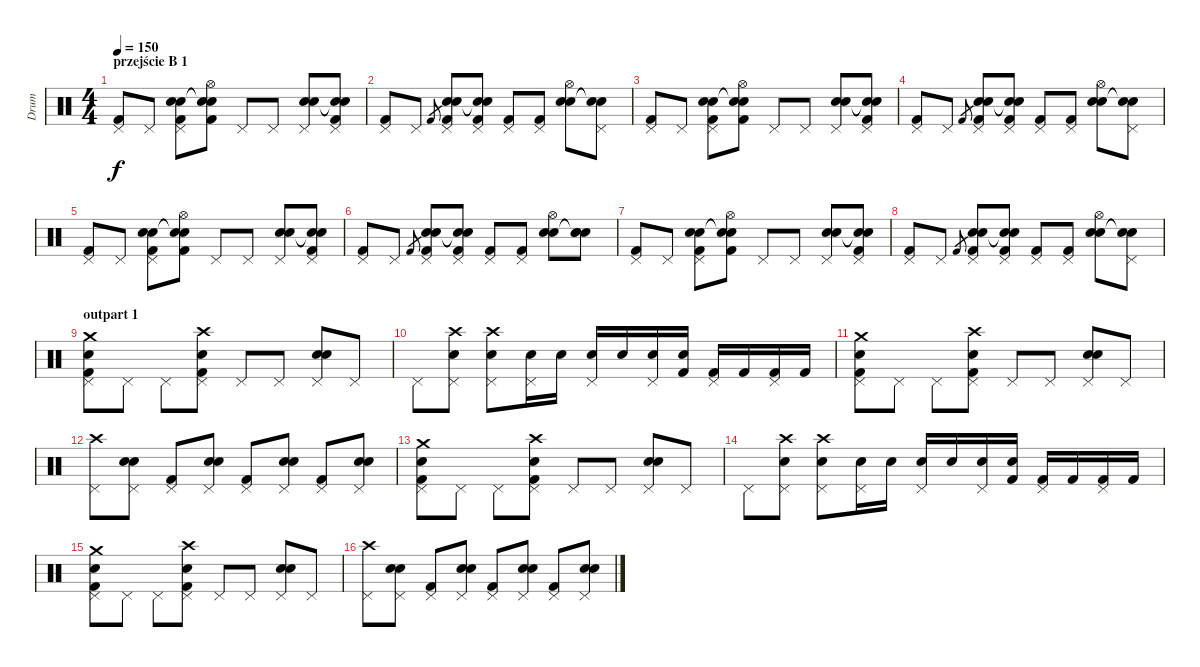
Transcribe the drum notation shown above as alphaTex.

\track ("Drum" "Drum") {instrument percussion}
\staff {score}
\articulation defaults
\ts (4 4)
\section ("" "przejście B 1")
\tempo 150
\clef neutral
\ks c
("Kick (hit) 2" "Pedal Hi-Hat (hit)").8{dy f} "Pedal Hi-Hat (hit)".8 ("Electric Snare (hit)" "Snare (hit) 2" "Kick (hit) 2" "Pedal Hi-Hat (hit)").8 ("Electric Snare (hit)"{t} "Snare (hit)"{t} "Kick (hit) 2" "Hi-Hat (open)").8 "Pedal Hi-Hat (hit)".8 "Pedal Hi-Hat (hit)".8 ("Electric Snare (hit)" "Snare (hit) 2" "Pedal Hi-Hat (hit)").8 ("Snare (hit)"{t} "Snare (hit)"{t} "Kick (hit) 2" "Pedal Hi-Hat (hit)").8 |
("Kick (hit) 2" "Pedal Hi-Hat (hit)").8 "Pedal Hi-Hat (hit)".8 "Kick (hit) 2".8{gr} ("Electric Snare (hit)" "Snare (hit) 2" "Kick (hit) 2" "Pedal Hi-Hat (hit)").8 ("Electric Snare (hit)"{t} "Snare (hit)"{t} "Kick (hit) 2" "Pedal Hi-Hat (hit)").8 ("Kick (hit) 2" "Pedal Hi-Hat (hit)").8 ("Kick (hit) 2" "Pedal Hi-Hat (hit)").8 ("Electric Snare (hit)" "Snare (hit) 2" "Hi-Hat (open)").8 ("Snare (hit)"{t} "Snare (hit)"{t} "Pedal Hi-Hat (hit)").8 |
("Kick (hit) 2" "Pedal Hi-Hat (hit)").8 "Pedal Hi-Hat (hit)".8 ("Electric Snare (hit)" "Snare (hit) 2" "Kick (hit) 2" "Pedal Hi-Hat (hit)").8 ("Electric Snare (hit)"{t} "Snare (hit)"{t} "Kick (hit) 2" "Hi-Hat (open)").8 "Pedal Hi-Hat (hit)".8 "Pedal Hi-Hat (hit)".8 ("Electric Snare (hit)" "Snare (hit) 2" "Pedal Hi-Hat (hit)").8 ("Snare (hit)"{t} "Snare (hit)"{t} "Kick (hit) 2" "Pedal Hi-Hat (hit)").8 |
("Kick (hit) 2" "Pedal Hi-Hat (hit)").8 "Pedal Hi-Hat (hit)".8 "Kick (hit) 2".8{gr} ("Electric Snare (hit)" "Snare (hit) 2" "Kick (hit) 2" "Pedal Hi-Hat (hit)").8 ("Electric Snare (hit)"{t} "Snare (hit)"{t} "Kick (hit) 2" "Pedal Hi-Hat (hit)").8 ("Kick (hit) 2" "Pedal Hi-Hat (hit)").8 ("Kick (hit) 2" "Pedal Hi-Hat (hit)").8 ("Electric Snare (hit)" "Snare (hit) 2" "Hi-Hat (open)").8 ("Snare (hit)"{t} "Snare (hit)"{t} "Pedal Hi-Hat (hit)").8 |
("Kick (hit) 2" "Pedal Hi-Hat (hit)").8 "Pedal Hi-Hat (hit)".8 ("Electric Snare (hit)" "Snare (hit) 2" "Kick (hit) 2" "Pedal Hi-Hat (hit)").8 ("Electric Snare (hit)"{t} "Snare (hit)"{t} "Kick (hit) 2" "Hi-Hat (open)").8 "Pedal Hi-Hat (hit)".8 "Pedal Hi-Hat (hit)".8 ("Electric Snare (hit)" "Snare (hit) 2" "Pedal Hi-Hat (hit)").8 ("Snare (hit)"{t} "Snare (hit)"{t} "Kick (hit) 2" "Pedal Hi-Hat (hit)").8 |
("Kick (hit) 2" "Pedal Hi-Hat (hit)").8 "Pedal Hi-Hat (hit)".8 "Kick (hit) 2".8{gr} ("Electric Snare (hit)" "Snare (hit) 2" "Kick (hit) 2" "Pedal Hi-Hat (hit)").8 ("Electric Snare (hit)"{t} "Snare (hit)"{t} "Kick (hit) 2" "Pedal Hi-Hat (hit)").8 ("Kick (hit) 2" "Pedal Hi-Hat (hit)").8 ("Kick (hit) 2" "Pedal Hi-Hat (hit)").8 ("Electric Snare (hit)" "Snare (hit) 2" "Hi-Hat (open)").8 ("Snare (hit)"{t} "Snare (hit)"{t} "Electric Snare (hit)").8 |
("Kick (hit) 2" "Pedal Hi-Hat (hit)").8 "Pedal Hi-Hat (hit)".8 ("Electric Snare (hit)" "Snare (hit) 2" "Kick (hit) 2" "Pedal Hi-Hat (hit)").8 ("Electric Snare (hit)"{t} "Snare (hit)"{t} "Kick (hit) 2" "Hi-Hat (open)").8 "Pedal Hi-Hat (hit)".8 "Pedal Hi-Hat (hit)".8 ("Electric Snare (hit)" "Snare (hit) 2" "Pedal Hi-Hat (hit)").8 ("Snare (hit)"{t} "Snare (hit)"{t} "Kick (hit) 2" "Pedal Hi-Hat (hit)").8 |
("Kick (hit) 2" "Pedal Hi-Hat (hit)").8 "Pedal Hi-Hat (hit)".8 "Kick (hit) 2".8{gr} ("Electric Snare (hit)" "Snare (hit) 2" "Kick (hit) 2" "Pedal Hi-Hat (hit)").8 ("Electric Snare (hit)"{t} "Snare (hit)"{t} "Kick (hit) 2" "Pedal Hi-Hat (hit)").8 ("Kick (hit) 2" "Pedal Hi-Hat (hit)").8 ("Kick (hit) 2" "Pedal Hi-Hat (hit)").8 ("Electric Snare (hit)" "Snare (hit) 2" "Hi-Hat (open)").8 ("Snare (hit)"{t} "Snare (hit)"{t} "Pedal Hi-Hat (hit)").8 |
\section ("" "outpart 1")
("Electric Snare (hit)" "Crash medium (hit)" "Kick (hit) 2" "Pedal Hi-Hat (hit)").8 "Pedal Hi-Hat (hit)".8 "Pedal Hi-Hat (hit)".8 ("Electric Snare (hit)" "Crash high (hit)" "Kick (hit) 2" "Pedal Hi-Hat (hit)").8 "Pedal Hi-Hat (hit)".8 "Pedal Hi-Hat (hit)".8 ("Electric Snare (hit)" "Snare (hit) 2" "Pedal Hi-Hat (hit)").8 "Pedal Hi-Hat (hit)".8 |
"Pedal Hi-Hat (hit)".8 ("Electric Snare (hit)" "Crash high (hit)" "Pedal Hi-Hat (hit)").8 ("Electric Snare (hit)" "Crash high (hit)" "Pedal Hi-Hat (hit)").8 ("Electric Snare (hit)" "Pedal Hi-Hat (hit)").16 "Snare (hit) 2".16 ("Electric Snare (hit)" "Pedal Hi-Hat (hit)").16 "Snare (hit) 2".16 ("Electric Snare (hit)" "Pedal Hi-Hat (hit)").16 ("Snare (hit) 2" "Kick (hit) 2").16 ("Kick (hit) 2" "Pedal Hi-Hat (hit)").16 "Kick (hit) 2".16 ("Kick (hit) 2" "Pedal Hi-Hat (hit)").16 "Kick (hit) 2".16 |
("Electric Snare (hit)" "Crash medium (hit)" "Kick (hit) 2" "Pedal Hi-Hat (hit)").8 "Pedal Hi-Hat (hit)".8 "Pedal Hi-Hat (hit)".8 ("Electric Snare (hit)" "Crash high (hit)" "Kick (hit) 2" "Pedal Hi-Hat (hit)").8 "Pedal Hi-Hat (hit)".8 "Pedal Hi-Hat (hit)".8 ("Electric Snare (hit)" "Snare (hit) 2" "Pedal Hi-Hat (hit)").8 "Pedal Hi-Hat (hit)".8 |
("Crash high (hit)" "Pedal Hi-Hat (hit)").8 ("Electric Snare (hit)" "Snare (hit) 2" "Pedal Hi-Hat (hit)").8 ("Kick (hit) 2" "Pedal Hi-Hat (hit)").8 ("Electric Snare (hit)" "Snare (hit) 2" "Pedal Hi-Hat (hit)").8 ("Kick (hit) 2" "Pedal Hi-Hat (hit)").8 ("Electric Snare (hit)" "Snare (hit) 2" "Pedal Hi-Hat (hit)").8 ("Kick (hit) 2" "Pedal Hi-Hat (hit)").8 ("Electric Snare (hit)" "Snare (hit) 2" "Pedal Hi-Hat (hit)").8 |
("Electric Snare (hit)" "Crash medium (hit)" "Kick (hit) 2" "Pedal Hi-Hat (hit)").8 "Pedal Hi-Hat (hit)".8 "Pedal Hi-Hat (hit)".8 ("Electric Snare (hit)" "Crash high (hit)" "Kick (hit) 2" "Pedal Hi-Hat (hit)").8 "Pedal Hi-Hat (hit)".8 "Pedal Hi-Hat (hit)".8 ("Electric Snare (hit)" "Snare (hit) 2" "Pedal Hi-Hat (hit)").8 "Pedal Hi-Hat (hit)".8 |
"Pedal Hi-Hat (hit)".8 ("Electric Snare (hit)" "Crash high (hit)" "Pedal Hi-Hat (hit)").8 ("Electric Snare (hit)" "Crash high (hit)" "Pedal Hi-Hat (hit)").8 ("Electric Snare (hit)" "Pedal Hi-Hat (hit)").16 "Snare (hit) 2".16 ("Electric Snare (hit)" "Pedal Hi-Hat (hit)").16 "Snare (hit) 2".16 ("Electric Snare (hit)" "Pedal Hi-Hat (hit)").16 ("Snare (hit) 2" "Kick (hit) 2").16 ("Kick (hit) 2" "Pedal Hi-Hat (hit)").16 "Kick (hit) 2".16 ("Kick (hit) 2" "Pedal Hi-Hat (hit)").16 "Kick (hit) 2".16 |
("Electric Snare (hit)" "Crash medium (hit)" "Kick (hit) 2" "Pedal Hi-Hat (hit)").8 "Pedal Hi-Hat (hit)".8 "Pedal Hi-Hat (hit)".8 ("Electric Snare (hit)" "Crash high (hit)" "Kick (hit) 2" "Pedal Hi-Hat (hit)").8 "Pedal Hi-Hat (hit)".8 "Pedal Hi-Hat (hit)".8 ("Electric Snare (hit)" "Snare (hit) 2" "Pedal Hi-Hat (hit)").8 "Pedal Hi-Hat (hit)".8 |
("Crash high (hit)" "Pedal Hi-Hat (hit)").8 ("Electric Snare (hit)" "Snare (hit) 2" "Pedal Hi-Hat (hit)").8 ("Kick (hit) 2" "Pedal Hi-Hat (hit)").8 ("Electric Snare (hit)" "Snare (hit) 2" "Pedal Hi-Hat (hit)").8 ("Kick (hit) 2" "Pedal Hi-Hat (hit)").8 ("Electric Snare (hit)" "Snare (hit) 2" "Pedal Hi-Hat (hit)").8 ("Kick (hit) 2" "Pedal Hi-Hat (hit)").8 ("Electric Snare (hit)" "Snare (hit) 2" "Pedal Hi-Hat (hit)").8
